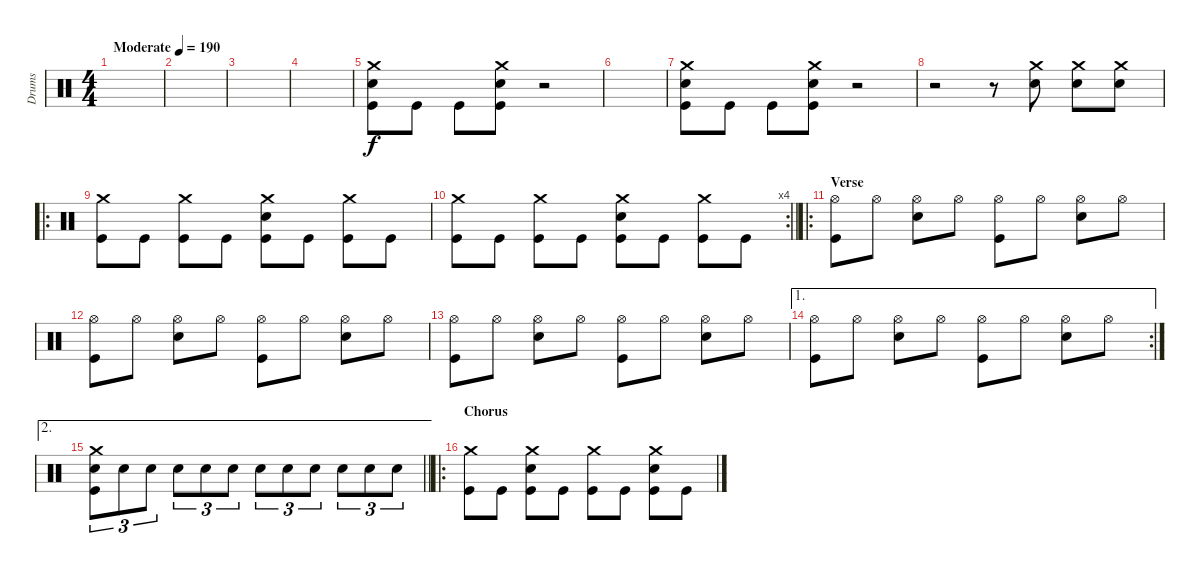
\track ("Drums" "Drums") {instrument percussion}
\staff {score}
\articulation defaults
\ts (4 4)
\tempo (190 "Moderate")
\clef neutral
\ks c
|
|
|
|
("Crash medium (hit)" "Snare (hit) 2" "Kick (hit)").8 "Kick (hit)".8 "Kick (hit)".8 ("Crash medium (hit)" "Snare (hit) 2" "Kick (hit)").8 r.2 |
|
("Crash medium (hit)" "Snare (hit) 2" "Kick (hit)").8 "Kick (hit)".8 "Kick (hit)".8 ("Crash medium (hit)" "Snare (hit) 2" "Kick (hit)").8 r.2 |
r.2 r.8 ("Crash medium (hit)" "Snare (hit) 2").8 ("Crash medium (hit)" "Snare (hit) 2").8 ("Crash medium (hit)" "Snare (hit) 2").8 |
\ro
("Crash medium (hit)" "Kick (hit)").8 "Kick (hit)".8 ("Crash medium (hit)" "Kick (hit)").8 "Kick (hit)".8 ("Crash medium (hit)" "Snare (hit) 2" "Kick (hit)").8 "Kick (hit)".8 ("Crash medium (hit)" "Kick (hit)").8 "Kick (hit)".8 |
\rc 4
\barLineRight lightlight
("Crash medium (hit)" "Kick (hit)").8 "Kick (hit)".8 ("Crash medium (hit)" "Kick (hit)").8 "Kick (hit)".8 ("Crash medium (hit)" "Snare (hit) 2" "Kick (hit)").8 "Kick (hit)".8 ("Crash medium (hit)" "Kick (hit)").8 "Kick (hit)".8 |
\ro
\section ("" "Verse")
("Hi-Hat (open)" "Kick (hit)").8 "Hi-Hat (open)".8 ("Hi-Hat (open)" "Snare (hit) 2").8 "Hi-Hat (open)".8 ("Hi-Hat (open)" "Kick (hit)").8 "Hi-Hat (open)".8 ("Hi-Hat (open)" "Snare (hit) 2").8 "Hi-Hat (open)".8 |
("Hi-Hat (open)" "Kick (hit)").8 "Hi-Hat (open)".8 ("Hi-Hat (open)" "Snare (hit) 2").8 "Hi-Hat (open)".8 ("Hi-Hat (open)" "Kick (hit)").8 "Hi-Hat (open)".8 ("Hi-Hat (open)" "Snare (hit) 2").8 "Hi-Hat (open)".8 |
("Hi-Hat (open)" "Kick (hit)").8 "Hi-Hat (open)".8 ("Hi-Hat (open)" "Snare (hit) 2").8 "Hi-Hat (open)".8 ("Hi-Hat (open)" "Kick (hit)").8 "Hi-Hat (open)".8 ("Hi-Hat (open)" "Snare (hit) 2").8 "Hi-Hat (open)".8 |
\ae 1
\rc 2
("Hi-Hat (open)" "Kick (hit)").8 "Hi-Hat (open)".8 ("Hi-Hat (open)" "Snare (hit) 2").8 "Hi-Hat (open)".8 ("Hi-Hat (open)" "Kick (hit)").8 "Hi-Hat (open)".8 ("Hi-Hat (open)" "Snare (hit) 2").8 "Hi-Hat (open)".8 |
\ae 2
\barLineRight lightlight
("Crash medium (hit)" "Snare (hit) 2" "Kick (hit)").8{tu (3 2)} "Snare (hit) 2".8{tu (3 2)} "Snare (hit) 2".8{tu (3 2)} "Snare (hit) 2".8{tu (3 2)} "Snare (hit) 2".8{tu (3 2)} "Snare (hit) 2".8{tu (3 2)} "Snare (hit) 2".8{tu (3 2)} "Snare (hit) 2".8{tu (3 2)} "Snare (hit) 2".8{tu (3 2)} "Snare (hit) 2".8{tu (3 2)} "Snare (hit) 2".8{tu (3 2)} "Snare (hit) 2".8{tu (3 2)} |
\ro
\section ("" "Chorus")
("Crash medium (hit)" "Kick (hit)").8 "Kick (hit)".8 ("Crash medium (hit)" "Snare (hit) 2" "Kick (hit)").8 "Kick (hit)".8 ("Crash medium (hit)" "Kick (hit)").8 "Kick (hit)".8 ("Crash medium (hit)" "Snare (hit) 2" "Kick (hit)").8 "Kick (hit)".8
